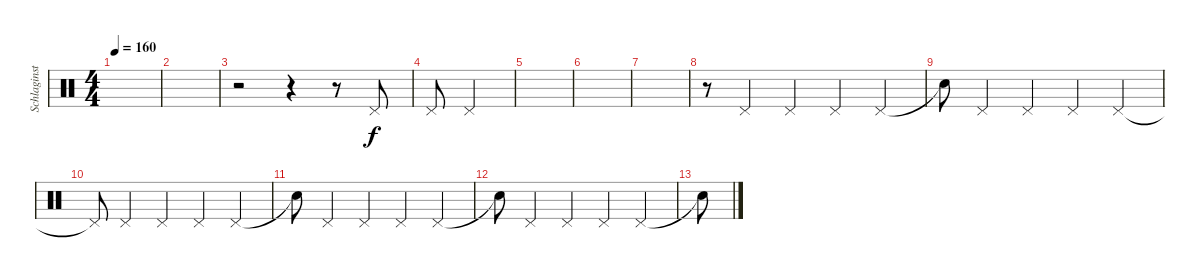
\track ("Schlaginstrumente - Auswahl" "Schlaginst") {instrument percussion}
\staff {score}
\articulation defaults
\ts (4 4)
\tempo 160
\clef neutral
\ks c
|
|
r.2 r.4 r.8 "Pedal Hi-Hat (hit)".8 |
"Pedal Hi-Hat (hit)".8 "Pedal Hi-Hat (hit)".4 |
|
|
|
r.8 "Pedal Hi-Hat (hit)".4 "Pedal Hi-Hat (hit)".4 "Pedal Hi-Hat (hit)".4 "Pedal Hi-Hat (hit)".4 |
"Snare (hit)"{t}.8 "Pedal Hi-Hat (hit)".4 "Pedal Hi-Hat (hit)".4 "Pedal Hi-Hat (hit)".4 "Pedal Hi-Hat (hit)".4 |
"Pedal Hi-Hat (hit)"{t}.8 "Pedal Hi-Hat (hit)".4 "Pedal Hi-Hat (hit)".4 "Pedal Hi-Hat (hit)".4 "Pedal Hi-Hat (hit)".4 |
"Snare (hit)"{t}.8 "Pedal Hi-Hat (hit)".4 "Pedal Hi-Hat (hit)".4 "Pedal Hi-Hat (hit)".4 "Pedal Hi-Hat (hit)".4 |
"Snare (hit)"{t}.8 "Pedal Hi-Hat (hit)".4 "Pedal Hi-Hat (hit)".4 "Pedal Hi-Hat (hit)".4 "Pedal Hi-Hat (hit)".4 |
"Snare (hit)"{t}.8
